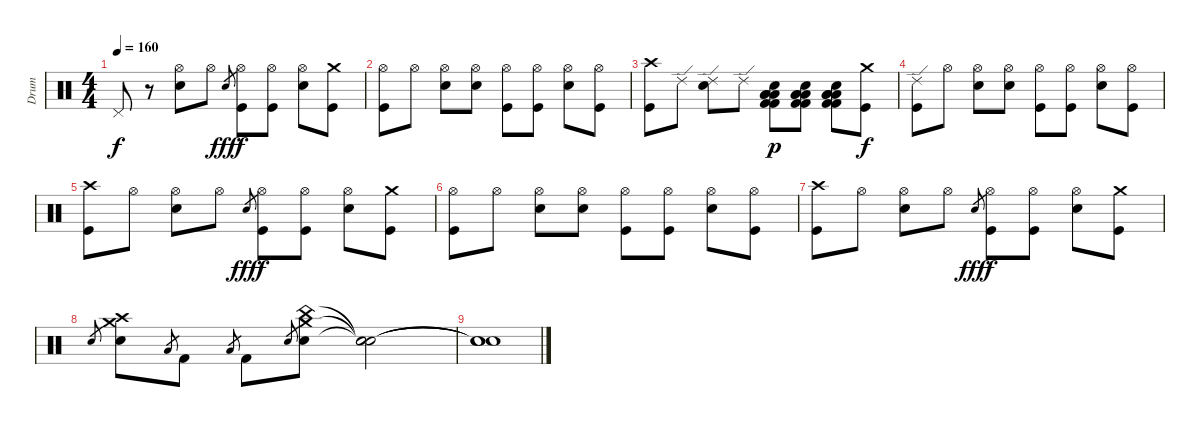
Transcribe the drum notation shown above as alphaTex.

\track ("Drum" "Drum") {instrument percussion}
\staff {score}
\articulation defaults
\ts (4 4)
\tempo 160
\clef neutral
\ks c "Pedal Hi-Hat (hit)".8{dy f}
r.8 ("Hi-Hat (open)" "Electric Snare (hit)").8 "Hi-Hat (open)".8 "Electric Snare (hit)".8{gr dy fff} ("Hi-Hat (open)" "Kick (hit)").8{dy f} ("Hi-Hat (open)" "Kick (hit)").8 ("Hi-Hat (open)" "Electric Snare (hit)").8 ("Crash medium (hit)" "Kick (hit)").8 |
("Hi-Hat (open)" "Kick (hit)").8 "Hi-Hat (open)".8 ("Hi-Hat (open)" "Electric Snare (hit)").8 ("Hi-Hat (open)" "Electric Snare (hit)").8 ("Hi-Hat (open)" "Kick (hit)").8 ("Hi-Hat (open)" "Kick (hit)").8 ("Hi-Hat (open)" "Electric Snare (hit)").8 ("Hi-Hat (open)" "Kick (hit)").8 |
("Crash high (hit)" "Kick (hit)").8 "Ride (edge) 2".8 ("Ride (edge) 2" "Electric Snare (hit)").8 "Ride (edge) 2".8 ("Low Tom (hit)" "Low Floor Tom (hit)" "Low Floor Tom (hit)" "Kick (hit) 2" "Snare (hit) 2" "Kick (hit) 2").8{dy p} ("Low Tom (hit)" "Low Floor Tom (hit)" "Low Floor Tom (hit)" "Kick (hit) 2" "Snare (hit) 2" "Kick (hit) 2").8 ("Low Tom (hit)" "Low Floor Tom (hit)" "Low Floor Tom (hit)" "Kick (hit) 2" "Snare (hit) 2" "Kick (hit) 2").8 ("Crash medium (hit)" "Kick (hit)").8{dy f} |
("Ride (edge) 2" "Kick (hit)").8 "Hi-Hat (open)".8 ("Hi-Hat (open)" "Electric Snare (hit)").8 ("Hi-Hat (open)" "Electric Snare (hit)").8 ("Hi-Hat (open)" "Kick (hit)").8 ("Hi-Hat (open)" "Kick (hit)").8 ("Hi-Hat (open)" "Electric Snare (hit)").8 ("Hi-Hat (open)" "Kick (hit)").8 |
("Crash high (hit)" "Kick (hit)").8 "Hi-Hat (open)".8 ("Hi-Hat (open)" "Electric Snare (hit)").8 "Hi-Hat (open)".8 "Electric Snare (hit)".8{gr dy fff} ("Hi-Hat (open)" "Kick (hit)").8{dy f} ("Hi-Hat (open)" "Kick (hit)").8 ("Hi-Hat (open)" "Electric Snare (hit)").8 ("Crash medium (hit)" "Kick (hit)").8 |
("Hi-Hat (open)" "Kick (hit)").8 "Hi-Hat (open)".8 ("Hi-Hat (open)" "Electric Snare (hit)").8 ("Hi-Hat (open)" "Electric Snare (hit)").8 ("Hi-Hat (open)" "Kick (hit)").8 ("Hi-Hat (open)" "Kick (hit)").8 ("Hi-Hat (open)" "Electric Snare (hit)").8 ("Hi-Hat (open)" "Kick (hit)").8 |
("Crash high (hit)" "Kick (hit)").8 "Hi-Hat (open)".8 ("Hi-Hat (open)" "Electric Snare (hit)").8 "Hi-Hat (open)".8 "Electric Snare (hit)".8{gr dy fff} ("Hi-Hat (open)" "Kick (hit)").8{dy f} ("Hi-Hat (open)" "Kick (hit)").8 ("Hi-Hat (open)" "Electric Snare (hit)").8 ("Crash medium (hit)" "Kick (hit)").8 |
"Electric Snare (hit)".8{gr} ("Crash high (hit)" "Crash medium (hit)" "Electric Snare (hit)").8 "Low Tom (hit)".8{gr} "Kick (hit) 2".8 "Low Tom (hit)".8{gr} "Kick (hit) 2".8 "Electric Snare (hit)".8{gr} ("China (hit)" "Crash medium (hit)" "Electric Snare (hit)").8 ("Snare (hit)"{t} "Snare (hit)"{t} "Snare (hit)"{t}).2 |
("Snare (hit)"{t} "Snare (hit)"{t} "Snare (hit)"{t}).1
